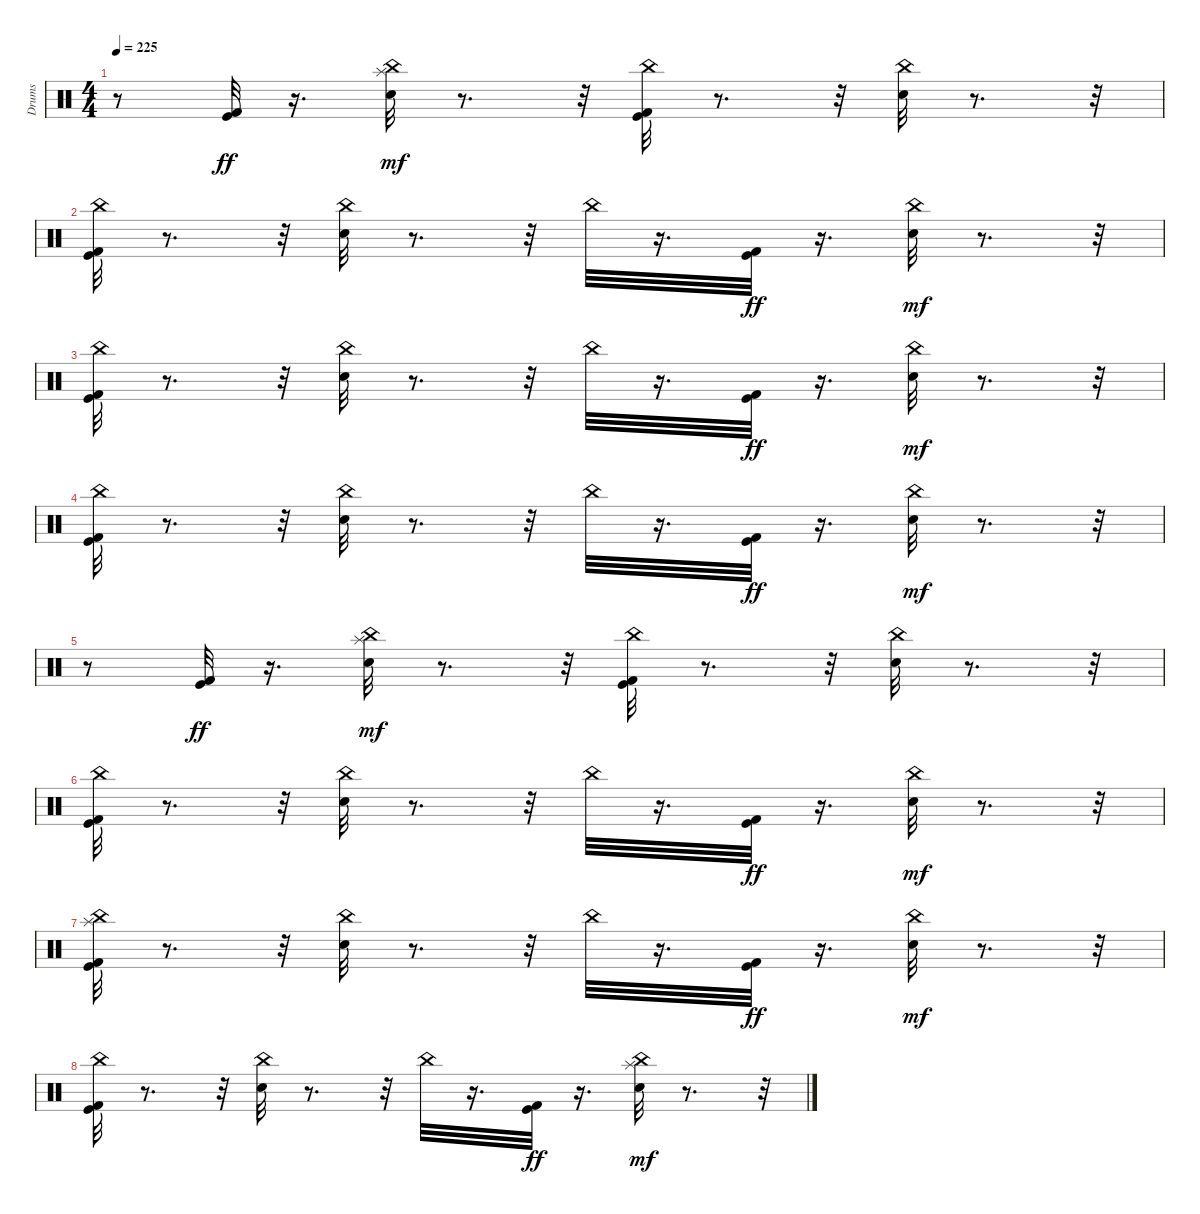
\track ("Drums" "Drums") {instrument percussion}
\staff {score}
\articulation defaults
\ts (4 4)
\tempo 225
\clef neutral
\ks c
r.8{dy mf} ("Kick (hit) 2" "Kick (hit)").32{dy ff} r.16{d} ("Snare (hit) 2" "Splash (hit)" "China (hit)").32{dy mf} r.8{d} r.32 ("Kick (hit) 2" "Kick (hit)" "China (hit)").32 r.8{d} r.32 ("Snare (hit) 2" "China (hit)").32 r.8{d} r.32 |
("Kick (hit) 2" "Kick (hit)" "China (hit)").32 r.8{d} r.32 ("Snare (hit) 2" "China (hit)").32 r.8{d} r.32 "China (hit)".32 r.16{d} ("Kick (hit) 2" "Kick (hit)").32{dy ff} r.16{d} ("Snare (hit) 2" "China (hit)").32{dy mf} r.8{d} r.32 |
("Kick (hit) 2" "Kick (hit)" "China (hit)").32 r.8{d} r.32 ("Snare (hit) 2" "China (hit)").32 r.8{d} r.32 "China (hit)".32 r.16{d} ("Kick (hit) 2" "Kick (hit)").32{dy ff} r.16{d} ("Snare (hit) 2" "China (hit)").32{dy mf} r.8{d} r.32 |
("Kick (hit) 2" "Kick (hit)" "China (hit)").32 r.8{d} r.32 ("Snare (hit) 2" "China (hit)").32 r.8{d} r.32 "China (hit)".32 r.16{d} ("Kick (hit) 2" "Kick (hit)").32{dy ff} r.16{d} ("Snare (hit) 2" "China (hit)").32{dy mf} r.8{d} r.32 |
r.8 ("Kick (hit) 2" "Kick (hit)").32{dy ff} r.16{d} ("Snare (hit) 2" "Splash (hit)" "China (hit)").32{dy mf} r.8{d} r.32 ("Kick (hit) 2" "Kick (hit)" "China (hit)").32 r.8{d} r.32 ("Snare (hit) 2" "China (hit)").32 r.8{d} r.32 |
("Kick (hit) 2" "Kick (hit)" "China (hit)").32 r.8{d} r.32 ("Snare (hit) 2" "China (hit)").32 r.8{d} r.32 "China (hit)".32 r.16{d} ("Kick (hit) 2" "Kick (hit)").32{dy ff} r.16{d} ("Snare (hit) 2" "China (hit)").32{dy mf} r.8{d} r.32 |
("Kick (hit) 2" "Kick (hit)" "China (hit)" "Splash (hit)").32 r.8{d} r.32 ("Snare (hit) 2" "China (hit)").32 r.8{d} r.32 "China (hit)".32 r.16{d} ("Kick (hit) 2" "Kick (hit)").32{dy ff} r.16{d} ("Snare (hit) 2" "China (hit)").32{dy mf} r.8{d} r.32 |
("Kick (hit) 2" "Kick (hit)" "China (hit)").32 r.8{d} r.32 ("Snare (hit) 2" "China (hit)").32 r.8{d} r.32 "China (hit)".32 r.16{d} ("Kick (hit) 2" "Kick (hit)").32{dy ff} r.16{d} ("Snare (hit) 2" "China (hit)" "Splash (hit)").32{dy mf} r.8{d} r.32
